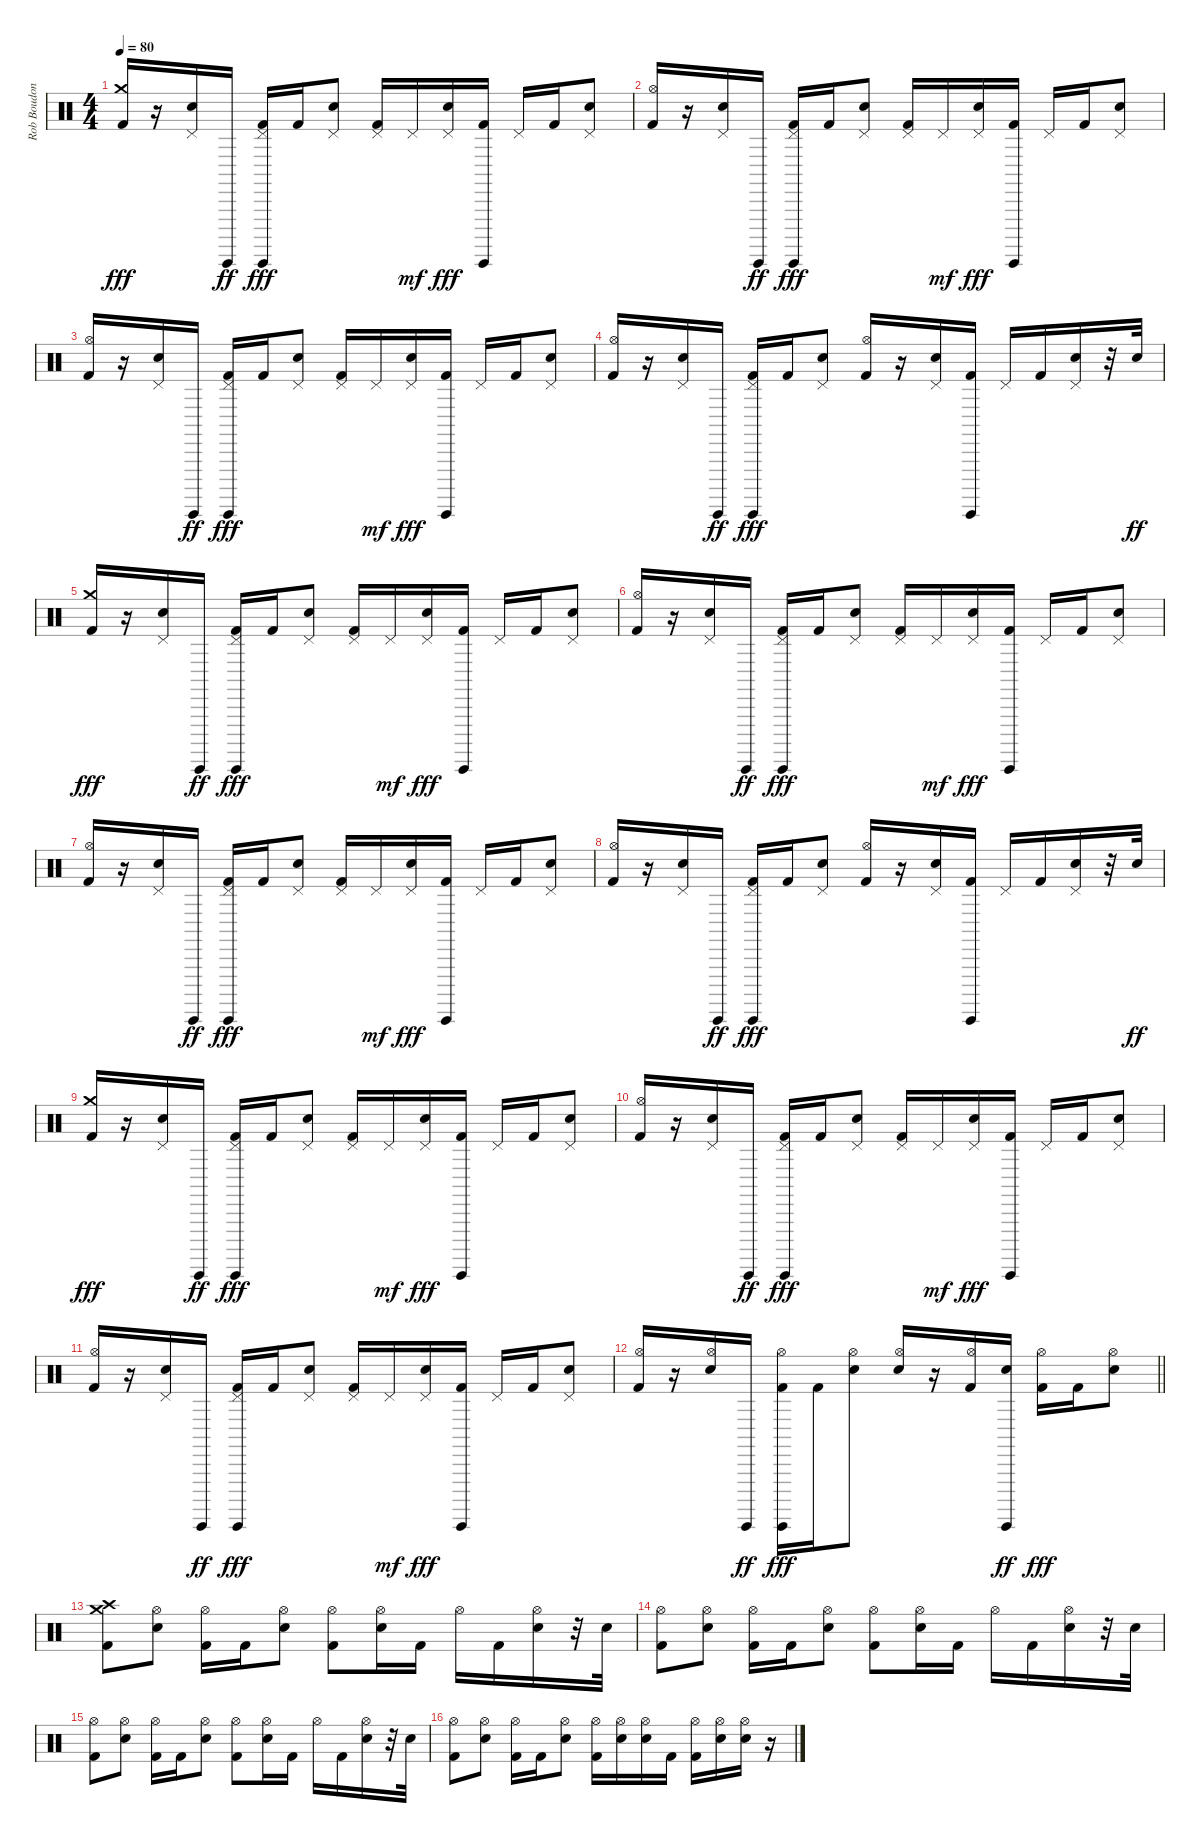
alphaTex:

\track ("Rob Boudon [Drums]" "Rob Boudon") {instrument percussion}
\staff {score}
\articulation defaults
\ts (4 4)
\tempo 80
\clef neutral
\ks c
("Crash medium (hit)" "Kick (hit) 2").16{dy fff} r.16 ("Pedal Hi-Hat (hit)" "Electric Snare (hit)").16 "Guiro (hit)".16{dy ff} ("Guiro (hit)" "Pedal Hi-Hat (hit)" "Kick (hit) 2").16{dy fff} "Kick (hit) 2".16 ("Pedal Hi-Hat (hit)" "Electric Snare (hit)").8 ("Pedal Hi-Hat (hit)" "Kick (hit) 2").16 "Pedal Hi-Hat (hit)".16{dy mf} ("Pedal Hi-Hat (hit)" "Electric Snare (hit)").16{dy fff} ("Guiro (hit)" "Kick (hit) 2").16 "Pedal Hi-Hat (hit)".16 "Kick (hit) 2".16 ("Pedal Hi-Hat (hit)" "Electric Snare (hit)").8 |
("Hi-Hat (open)" "Kick (hit) 2").16 r.16 ("Pedal Hi-Hat (hit)" "Electric Snare (hit)").16 "Guiro (hit)".16{dy ff} ("Guiro (hit)" "Pedal Hi-Hat (hit)" "Kick (hit) 2").16{dy fff} "Kick (hit) 2".16 ("Pedal Hi-Hat (hit)" "Electric Snare (hit)").8 ("Pedal Hi-Hat (hit)" "Kick (hit) 2").16 "Pedal Hi-Hat (hit)".16{dy mf} ("Pedal Hi-Hat (hit)" "Electric Snare (hit)").16{dy fff} ("Guiro (hit)" "Kick (hit) 2").16 "Pedal Hi-Hat (hit)".16 "Kick (hit) 2".16 ("Pedal Hi-Hat (hit)" "Electric Snare (hit)").8 |
("Hi-Hat (open)" "Kick (hit) 2").16 r.16 ("Pedal Hi-Hat (hit)" "Electric Snare (hit)").16 "Guiro (hit)".16{dy ff} ("Guiro (hit)" "Pedal Hi-Hat (hit)" "Kick (hit) 2").16{dy fff} "Kick (hit) 2".16 ("Pedal Hi-Hat (hit)" "Electric Snare (hit)").8 ("Pedal Hi-Hat (hit)" "Kick (hit) 2").16 "Pedal Hi-Hat (hit)".16{dy mf} ("Pedal Hi-Hat (hit)" "Electric Snare (hit)").16{dy fff} ("Guiro (hit)" "Kick (hit) 2").16 "Pedal Hi-Hat (hit)".16 "Kick (hit) 2".16 ("Pedal Hi-Hat (hit)" "Electric Snare (hit)").8 |
("Hi-Hat (open)" "Kick (hit) 2").16 r.16 ("Pedal Hi-Hat (hit)" "Electric Snare (hit)").16 "Guiro (hit)".16{dy ff} ("Guiro (hit)" "Pedal Hi-Hat (hit)" "Kick (hit) 2").16{dy fff} "Kick (hit) 2".16 ("Pedal Hi-Hat (hit)" "Electric Snare (hit)").8 ("Hi-Hat (open)" "Kick (hit) 2").16 r.16 ("Pedal Hi-Hat (hit)" "Electric Snare (hit)").16 ("Guiro (hit)" "Kick (hit) 2").16 "Pedal Hi-Hat (hit)".16 "Kick (hit) 2".16 ("Pedal Hi-Hat (hit)" "Electric Snare (hit)").16 r.32 "Electric Snare (hit)".32{dy ff} |
("Crash medium (hit)" "Kick (hit) 2").16{dy fff} r.16 ("Pedal Hi-Hat (hit)" "Electric Snare (hit)").16 "Guiro (hit)".16{dy ff} ("Guiro (hit)" "Pedal Hi-Hat (hit)" "Kick (hit) 2").16{dy fff} "Kick (hit) 2".16 ("Pedal Hi-Hat (hit)" "Electric Snare (hit)").8 ("Pedal Hi-Hat (hit)" "Kick (hit) 2").16 "Pedal Hi-Hat (hit)".16{dy mf} ("Pedal Hi-Hat (hit)" "Electric Snare (hit)").16{dy fff} ("Guiro (hit)" "Kick (hit) 2").16 "Pedal Hi-Hat (hit)".16 "Kick (hit) 2".16 ("Pedal Hi-Hat (hit)" "Electric Snare (hit)").8 |
("Hi-Hat (open)" "Kick (hit) 2").16 r.16 ("Pedal Hi-Hat (hit)" "Electric Snare (hit)").16 "Guiro (hit)".16{dy ff} ("Guiro (hit)" "Pedal Hi-Hat (hit)" "Kick (hit) 2").16{dy fff} "Kick (hit) 2".16 ("Pedal Hi-Hat (hit)" "Electric Snare (hit)").8 ("Pedal Hi-Hat (hit)" "Kick (hit) 2").16 "Pedal Hi-Hat (hit)".16{dy mf} ("Pedal Hi-Hat (hit)" "Electric Snare (hit)").16{dy fff} ("Guiro (hit)" "Kick (hit) 2").16 "Pedal Hi-Hat (hit)".16 "Kick (hit) 2".16 ("Pedal Hi-Hat (hit)" "Electric Snare (hit)").8 |
("Hi-Hat (open)" "Kick (hit) 2").16 r.16 ("Pedal Hi-Hat (hit)" "Electric Snare (hit)").16 "Guiro (hit)".16{dy ff} ("Guiro (hit)" "Pedal Hi-Hat (hit)" "Kick (hit) 2").16{dy fff} "Kick (hit) 2".16 ("Pedal Hi-Hat (hit)" "Electric Snare (hit)").8 ("Pedal Hi-Hat (hit)" "Kick (hit) 2").16 "Pedal Hi-Hat (hit)".16{dy mf} ("Pedal Hi-Hat (hit)" "Electric Snare (hit)").16{dy fff} ("Guiro (hit)" "Kick (hit) 2").16 "Pedal Hi-Hat (hit)".16 "Kick (hit) 2".16 ("Pedal Hi-Hat (hit)" "Electric Snare (hit)").8 |
("Hi-Hat (open)" "Kick (hit) 2").16 r.16 ("Pedal Hi-Hat (hit)" "Electric Snare (hit)").16 "Guiro (hit)".16{dy ff} ("Guiro (hit)" "Pedal Hi-Hat (hit)" "Kick (hit) 2").16{dy fff} "Kick (hit) 2".16 ("Pedal Hi-Hat (hit)" "Electric Snare (hit)").8 ("Hi-Hat (open)" "Kick (hit) 2").16 r.16 ("Pedal Hi-Hat (hit)" "Electric Snare (hit)").16 ("Guiro (hit)" "Kick (hit) 2").16 "Pedal Hi-Hat (hit)".16 "Kick (hit) 2".16 ("Pedal Hi-Hat (hit)" "Electric Snare (hit)").16 r.32 "Electric Snare (hit)".32{dy ff} |
("Crash medium (hit)" "Kick (hit) 2").16{dy fff} r.16 ("Pedal Hi-Hat (hit)" "Electric Snare (hit)").16 "Guiro (hit)".16{dy ff} ("Guiro (hit)" "Pedal Hi-Hat (hit)" "Kick (hit) 2").16{dy fff} "Kick (hit) 2".16 ("Pedal Hi-Hat (hit)" "Electric Snare (hit)").8 ("Pedal Hi-Hat (hit)" "Kick (hit) 2").16 "Pedal Hi-Hat (hit)".16{dy mf} ("Pedal Hi-Hat (hit)" "Electric Snare (hit)").16{dy fff} ("Guiro (hit)" "Kick (hit) 2").16 "Pedal Hi-Hat (hit)".16 "Kick (hit) 2".16 ("Pedal Hi-Hat (hit)" "Electric Snare (hit)").8 |
("Hi-Hat (open)" "Kick (hit) 2").16 r.16 ("Pedal Hi-Hat (hit)" "Electric Snare (hit)").16 "Guiro (hit)".16{dy ff} ("Guiro (hit)" "Pedal Hi-Hat (hit)" "Kick (hit) 2").16{dy fff} "Kick (hit) 2".16 ("Pedal Hi-Hat (hit)" "Electric Snare (hit)").8 ("Pedal Hi-Hat (hit)" "Kick (hit) 2").16 "Pedal Hi-Hat (hit)".16{dy mf} ("Pedal Hi-Hat (hit)" "Electric Snare (hit)").16{dy fff} ("Guiro (hit)" "Kick (hit) 2").16 "Pedal Hi-Hat (hit)".16 "Kick (hit) 2".16 ("Pedal Hi-Hat (hit)" "Electric Snare (hit)").8 |
("Hi-Hat (open)" "Kick (hit) 2").16 r.16 ("Pedal Hi-Hat (hit)" "Electric Snare (hit)").16 "Guiro (hit)".16{dy ff} ("Guiro (hit)" "Pedal Hi-Hat (hit)" "Kick (hit) 2").16{dy fff} "Kick (hit) 2".16 ("Pedal Hi-Hat (hit)" "Electric Snare (hit)").8 ("Pedal Hi-Hat (hit)" "Kick (hit) 2").16 "Pedal Hi-Hat (hit)".16{dy mf} ("Pedal Hi-Hat (hit)" "Electric Snare (hit)").16{dy fff} ("Guiro (hit)" "Kick (hit) 2").16 "Pedal Hi-Hat (hit)".16 "Kick (hit) 2".16 ("Pedal Hi-Hat (hit)" "Electric Snare (hit)").8 |
\barLineRight lightlight
("Hi-Hat (open)" "Kick (hit) 2").16 r.16 ("Hi-Hat (open)" "Electric Snare (hit)").16 "Guiro (hit)".16{dy ff} ("Guiro (hit)" "Hi-Hat (open)" "Kick (hit) 2").16{dy fff} "Kick (hit) 2".16 ("Hi-Hat (open)" "Electric Snare (hit)").8 ("Hi-Hat (open)" "Electric Snare (hit)").16 r.16 ("Hi-Hat (open)" "Kick (hit) 2").16 ("Guiro (hit)" "Electric Snare (hit)").16{dy ff} ("Hi-Hat (open)" "Kick (hit) 2").16{dy fff} "Kick (hit) 2".16 ("Hi-Hat (open)" "Electric Snare (hit)").8 |
("Crash medium (hit)" "Crash high (hit)" "Kick (hit) 2").8 ("Hi-Hat (open)" "Electric Snare (hit)").8 ("Hi-Hat (open)" "Kick (hit) 2").16 "Kick (hit) 2".16 ("Hi-Hat (open)" "Electric Snare (hit)").8 ("Hi-Hat (open)" "Kick (hit) 2").8 ("Hi-Hat (open)" "Electric Snare (hit)").16 "Kick (hit) 2".16 "Hi-Hat (open)".16 "Kick (hit) 2".16 ("Hi-Hat (open)" "Electric Snare (hit)").16 r.32 "Electric Snare (hit)".32 |
("Hi-Hat (open)" "Kick (hit) 2").8 ("Hi-Hat (open)" "Electric Snare (hit)").8 ("Hi-Hat (open)" "Kick (hit) 2").16 "Kick (hit) 2".16 ("Hi-Hat (open)" "Electric Snare (hit)").8 ("Hi-Hat (open)" "Kick (hit) 2").8 ("Hi-Hat (open)" "Electric Snare (hit)").16 "Kick (hit) 2".16 "Hi-Hat (open)".16 "Kick (hit) 2".16 ("Hi-Hat (open)" "Electric Snare (hit)").16 r.32 "Electric Snare (hit)".32 |
("Hi-Hat (open)" "Kick (hit) 2").8 ("Hi-Hat (open)" "Electric Snare (hit)").8 ("Hi-Hat (open)" "Kick (hit) 2").16 "Kick (hit) 2".16 ("Hi-Hat (open)" "Electric Snare (hit)").8 ("Hi-Hat (open)" "Kick (hit) 2").8 ("Hi-Hat (open)" "Electric Snare (hit)").16 "Kick (hit) 2".16 "Hi-Hat (open)".16 "Kick (hit) 2".16 ("Hi-Hat (open)" "Electric Snare (hit)").16 r.32 "Electric Snare (hit)".32 |
("Hi-Hat (open)" "Kick (hit) 2").8 ("Hi-Hat (open)" "Electric Snare (hit)").8 ("Hi-Hat (open)" "Kick (hit) 2").16 "Kick (hit) 2".16 ("Hi-Hat (open)" "Electric Snare (hit)").8 ("Hi-Hat (open)" "Kick (hit) 2").16 ("Hi-Hat (open)" "Electric Snare (hit)").16 ("Hi-Hat (open)" "Electric Snare (hit)").16 "Kick (hit) 2".16 ("Hi-Hat (open)" "Kick (hit) 2").16 ("Hi-Hat (open)" "Electric Snare (hit)").16 ("Hi-Hat (open)" "Electric Snare (hit)").16 r.16
